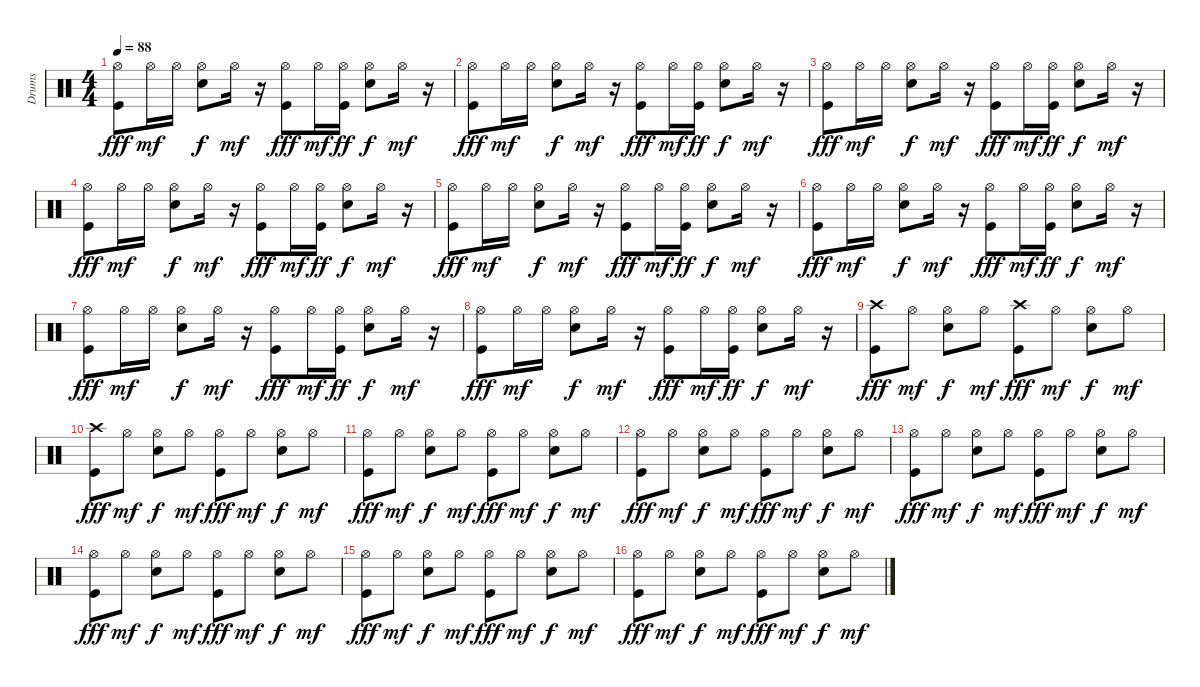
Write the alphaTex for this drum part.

\track ("Drums" "Drums") {instrument percussion}
\staff {score}
\articulation defaults
\ts (4 4)
\tempo 88
\clef neutral
\ks c
("Hi-Hat (open)" "Kick (hit)").8{dy fff} "Hi-Hat (open)".16{dy mf} "Hi-Hat (open)".16 ("Hi-Hat (open)" "Snare (hit) 2").8{dy f} "Hi-Hat (open)".16{dy mf} r.16 ("Hi-Hat (open)" "Kick (hit)").8{dy fff} "Hi-Hat (open)".16{dy mf} ("Hi-Hat (open)" "Kick (hit)").16{dy ff} ("Hi-Hat (open)" "Snare (hit) 2").8{dy f} "Hi-Hat (open)".16{dy mf} r.16 |
("Hi-Hat (open)" "Kick (hit)").8{dy fff} "Hi-Hat (open)".16{dy mf} "Hi-Hat (open)".16 ("Hi-Hat (open)" "Snare (hit) 2").8{dy f} "Hi-Hat (open)".16{dy mf} r.16 ("Hi-Hat (open)" "Kick (hit)").8{dy fff} "Hi-Hat (open)".16{dy mf} ("Hi-Hat (open)" "Kick (hit)").16{dy ff} ("Hi-Hat (open)" "Snare (hit) 2").8{dy f} "Hi-Hat (open)".16{dy mf} r.16 |
("Hi-Hat (open)" "Kick (hit)").8{dy fff} "Hi-Hat (open)".16{dy mf} "Hi-Hat (open)".16 ("Hi-Hat (open)" "Snare (hit) 2").8{dy f} "Hi-Hat (open)".16{dy mf} r.16 ("Hi-Hat (open)" "Kick (hit)").8{dy fff} "Hi-Hat (open)".16{dy mf} ("Hi-Hat (open)" "Kick (hit)").16{dy ff} ("Hi-Hat (open)" "Snare (hit) 2").8{dy f} "Hi-Hat (open)".16{dy mf} r.16 |
("Hi-Hat (open)" "Kick (hit)").8{dy fff} "Hi-Hat (open)".16{dy mf} "Hi-Hat (open)".16 ("Hi-Hat (open)" "Snare (hit) 2").8{dy f} "Hi-Hat (open)".16{dy mf} r.16 ("Hi-Hat (open)" "Kick (hit)").8{dy fff} "Hi-Hat (open)".16{dy mf} ("Hi-Hat (open)" "Kick (hit)").16{dy ff} ("Hi-Hat (open)" "Snare (hit) 2").8{dy f} "Hi-Hat (open)".16{dy mf} r.16 |
("Hi-Hat (open)" "Kick (hit)").8{dy fff} "Hi-Hat (open)".16{dy mf} "Hi-Hat (open)".16 ("Hi-Hat (open)" "Snare (hit) 2").8{dy f} "Hi-Hat (open)".16{dy mf} r.16 ("Hi-Hat (open)" "Kick (hit)").8{dy fff} "Hi-Hat (open)".16{dy mf} ("Hi-Hat (open)" "Kick (hit)").16{dy ff} ("Hi-Hat (open)" "Snare (hit) 2").8{dy f} "Hi-Hat (open)".16{dy mf} r.16 |
("Hi-Hat (open)" "Kick (hit)").8{dy fff} "Hi-Hat (open)".16{dy mf} "Hi-Hat (open)".16 ("Hi-Hat (open)" "Snare (hit) 2").8{dy f} "Hi-Hat (open)".16{dy mf} r.16 ("Hi-Hat (open)" "Kick (hit)").8{dy fff} "Hi-Hat (open)".16{dy mf} ("Hi-Hat (open)" "Kick (hit)").16{dy ff} ("Hi-Hat (open)" "Snare (hit) 2").8{dy f} "Hi-Hat (open)".16{dy mf} r.16 |
("Hi-Hat (open)" "Kick (hit)").8{dy fff} "Hi-Hat (open)".16{dy mf} "Hi-Hat (open)".16 ("Hi-Hat (open)" "Snare (hit) 2").8{dy f} "Hi-Hat (open)".16{dy mf} r.16 ("Hi-Hat (open)" "Kick (hit)").8{dy fff} "Hi-Hat (open)".16{dy mf} ("Hi-Hat (open)" "Kick (hit)").16{dy ff} ("Hi-Hat (open)" "Snare (hit) 2").8{dy f} "Hi-Hat (open)".16{dy mf} r.16 |
("Hi-Hat (open)" "Kick (hit)").8{dy fff} "Hi-Hat (open)".16{dy mf} "Hi-Hat (open)".16 ("Hi-Hat (open)" "Snare (hit) 2").8{dy f} "Hi-Hat (open)".16{dy mf} r.16 ("Hi-Hat (open)" "Kick (hit)").8{dy fff} "Hi-Hat (open)".16{dy mf} ("Hi-Hat (open)" "Kick (hit)").16{dy ff} ("Hi-Hat (open)" "Snare (hit) 2").8{dy f} "Hi-Hat (open)".16{dy mf} r.16 |
("Crash high (hit)" "Kick (hit)").8{dy fff} "Hi-Hat (open)".8{dy mf} ("Hi-Hat (open)" "Snare (hit) 2").8{dy f} "Hi-Hat (open)".8{dy mf} ("Crash high (hit)" "Kick (hit)").8{dy fff} "Hi-Hat (open)".8{dy mf} ("Hi-Hat (open)" "Snare (hit) 2").8{dy f} "Hi-Hat (open)".8{dy mf} |
("Crash high (hit)" "Kick (hit)").8{dy fff} "Hi-Hat (open)".8{dy mf} ("Hi-Hat (open)" "Snare (hit) 2").8{dy f} "Hi-Hat (open)".8{dy mf} ("Hi-Hat (open)" "Kick (hit)").8{dy fff} "Hi-Hat (open)".8{dy mf} ("Hi-Hat (open)" "Snare (hit) 2").8{dy f} "Hi-Hat (open)".8{dy mf} |
("Hi-Hat (open)" "Kick (hit)").8{dy fff} "Hi-Hat (open)".8{dy mf} ("Hi-Hat (open)" "Snare (hit) 2").8{dy f} "Hi-Hat (open)".8{dy mf} ("Hi-Hat (open)" "Kick (hit)").8{dy fff} "Hi-Hat (open)".8{dy mf} ("Hi-Hat (open)" "Snare (hit) 2").8{dy f} "Hi-Hat (open)".8{dy mf} |
("Hi-Hat (open)" "Kick (hit)").8{dy fff} "Hi-Hat (open)".8{dy mf} ("Hi-Hat (open)" "Snare (hit) 2").8{dy f} "Hi-Hat (open)".8{dy mf} ("Hi-Hat (open)" "Kick (hit)").8{dy fff} "Hi-Hat (open)".8{dy mf} ("Hi-Hat (open)" "Snare (hit) 2").8{dy f} "Hi-Hat (open)".8{dy mf} |
("Hi-Hat (open)" "Kick (hit)").8{dy fff} "Hi-Hat (open)".8{dy mf} ("Hi-Hat (open)" "Snare (hit) 2").8{dy f} "Hi-Hat (open)".8{dy mf} ("Hi-Hat (open)" "Kick (hit)").8{dy fff} "Hi-Hat (open)".8{dy mf} ("Hi-Hat (open)" "Snare (hit) 2").8{dy f} "Hi-Hat (open)".8{dy mf} |
("Hi-Hat (open)" "Kick (hit)").8{dy fff} "Hi-Hat (open)".8{dy mf} ("Hi-Hat (open)" "Snare (hit) 2").8{dy f} "Hi-Hat (open)".8{dy mf} ("Hi-Hat (open)" "Kick (hit)").8{dy fff} "Hi-Hat (open)".8{dy mf} ("Hi-Hat (open)" "Snare (hit) 2").8{dy f} "Hi-Hat (open)".8{dy mf} |
("Hi-Hat (open)" "Kick (hit)").8{dy fff} "Hi-Hat (open)".8{dy mf} ("Hi-Hat (open)" "Snare (hit) 2").8{dy f} "Hi-Hat (open)".8{dy mf} ("Hi-Hat (open)" "Kick (hit)").8{dy fff} "Hi-Hat (open)".8{dy mf} ("Hi-Hat (open)" "Snare (hit) 2").8{dy f} "Hi-Hat (open)".8{dy mf} |
("Hi-Hat (open)" "Kick (hit)").8{dy fff} "Hi-Hat (open)".8{dy mf} ("Hi-Hat (open)" "Snare (hit) 2").8{dy f} "Hi-Hat (open)".8{dy mf} ("Hi-Hat (open)" "Kick (hit)").8{dy fff} "Hi-Hat (open)".8{dy mf} ("Hi-Hat (open)" "Snare (hit) 2").8{dy f} "Hi-Hat (open)".8{dy mf}
